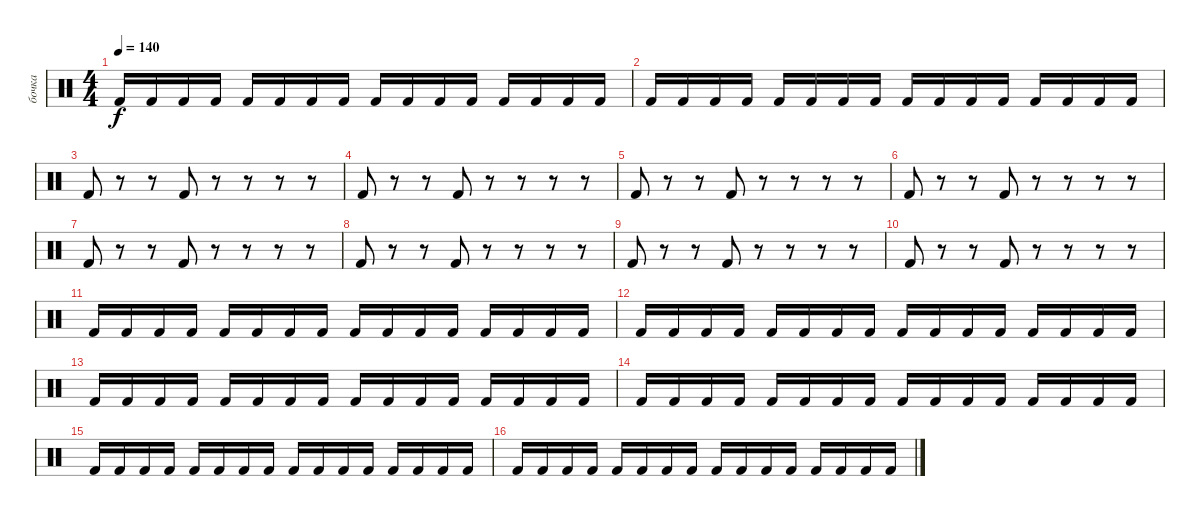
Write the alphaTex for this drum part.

\track ("бочка" "бочка") {mute instrument percussion}
\staff {score}
\articulation defaults
\ts (4 4)
\tempo 140
\clef neutral
\ks c "Kick (hit) 2".16{dy f} "Kick (hit) 2".16 "Kick (hit) 2".16 "Kick (hit) 2".16 "Kick (hit) 2".16 "Kick (hit) 2".16 "Kick (hit) 2".16 "Kick (hit) 2".16 "Kick (hit) 2".16 "Kick (hit) 2".16 "Kick (hit) 2".16 "Kick (hit) 2".16 "Kick (hit) 2".16 "Kick (hit) 2".16 "Kick (hit) 2".16 "Kick (hit) 2".16
|
"Kick (hit) 2".16 "Kick (hit) 2".16 "Kick (hit) 2".16 "Kick (hit) 2".16 "Kick (hit) 2".16 "Kick (hit) 2".16 "Kick (hit) 2".16 "Kick (hit) 2".16 "Kick (hit) 2".16 "Kick (hit) 2".16 "Kick (hit) 2".16 "Kick (hit) 2".16 "Kick (hit) 2".16 "Kick (hit) 2".16 "Kick (hit) 2".16 "Kick (hit) 2".16 |
"Kick (hit) 2".8 r.8 r.8 "Kick (hit) 2".8 r.8 r.8 r.8 r.8 |
"Kick (hit) 2".8 r.8 r.8 "Kick (hit) 2".8 r.8 r.8 r.8 r.8 |
"Kick (hit) 2".8 r.8 r.8 "Kick (hit) 2".8 r.8 r.8 r.8 r.8 |
"Kick (hit) 2".8 r.8 r.8 "Kick (hit) 2".8 r.8 r.8 r.8 r.8 |
"Kick (hit) 2".8 r.8 r.8 "Kick (hit) 2".8 r.8 r.8 r.8 r.8 |
"Kick (hit) 2".8 r.8 r.8 "Kick (hit) 2".8 r.8 r.8 r.8 r.8 |
"Kick (hit) 2".8 r.8 r.8 "Kick (hit) 2".8 r.8 r.8 r.8 r.8 |
"Kick (hit) 2".8 r.8 r.8 "Kick (hit) 2".8 r.8 r.8 r.8 r.8 |
"Kick (hit) 2".16 "Kick (hit) 2".16 "Kick (hit) 2".16 "Kick (hit) 2".16 "Kick (hit) 2".16 "Kick (hit) 2".16 "Kick (hit) 2".16 "Kick (hit) 2".16 "Kick (hit) 2".16 "Kick (hit) 2".16 "Kick (hit) 2".16 "Kick (hit) 2".16 "Kick (hit) 2".16 "Kick (hit) 2".16 "Kick (hit) 2".16 "Kick (hit) 2".16 |
"Kick (hit) 2".16 "Kick (hit) 2".16 "Kick (hit) 2".16 "Kick (hit) 2".16 "Kick (hit) 2".16 "Kick (hit) 2".16 "Kick (hit) 2".16 "Kick (hit) 2".16 "Kick (hit) 2".16 "Kick (hit) 2".16 "Kick (hit) 2".16 "Kick (hit) 2".16 "Kick (hit) 2".16 "Kick (hit) 2".16 "Kick (hit) 2".16 "Kick (hit) 2".16 |
"Kick (hit) 2".16 "Kick (hit) 2".16 "Kick (hit) 2".16 "Kick (hit) 2".16 "Kick (hit) 2".16 "Kick (hit) 2".16 "Kick (hit) 2".16 "Kick (hit) 2".16 "Kick (hit) 2".16 "Kick (hit) 2".16 "Kick (hit) 2".16 "Kick (hit) 2".16 "Kick (hit) 2".16 "Kick (hit) 2".16 "Kick (hit) 2".16 "Kick (hit) 2".16 |
"Kick (hit) 2".16 "Kick (hit) 2".16 "Kick (hit) 2".16 "Kick (hit) 2".16 "Kick (hit) 2".16 "Kick (hit) 2".16 "Kick (hit) 2".16 "Kick (hit) 2".16 "Kick (hit) 2".16 "Kick (hit) 2".16 "Kick (hit) 2".16 "Kick (hit) 2".16 "Kick (hit) 2".16 "Kick (hit) 2".16 "Kick (hit) 2".16 "Kick (hit) 2".16 |
"Kick (hit) 2".16 "Kick (hit) 2".16 "Kick (hit) 2".16 "Kick (hit) 2".16 "Kick (hit) 2".16 "Kick (hit) 2".16 "Kick (hit) 2".16 "Kick (hit) 2".16 "Kick (hit) 2".16 "Kick (hit) 2".16 "Kick (hit) 2".16 "Kick (hit) 2".16 "Kick (hit) 2".16 "Kick (hit) 2".16 "Kick (hit) 2".16 "Kick (hit) 2".16 |
"Kick (hit) 2".16 "Kick (hit) 2".16 "Kick (hit) 2".16 "Kick (hit) 2".16 "Kick (hit) 2".16 "Kick (hit) 2".16 "Kick (hit) 2".16 "Kick (hit) 2".16 "Kick (hit) 2".16 "Kick (hit) 2".16 "Kick (hit) 2".16 "Kick (hit) 2".16 "Kick (hit) 2".16 "Kick (hit) 2".16 "Kick (hit) 2".16 "Kick (hit) 2".16
